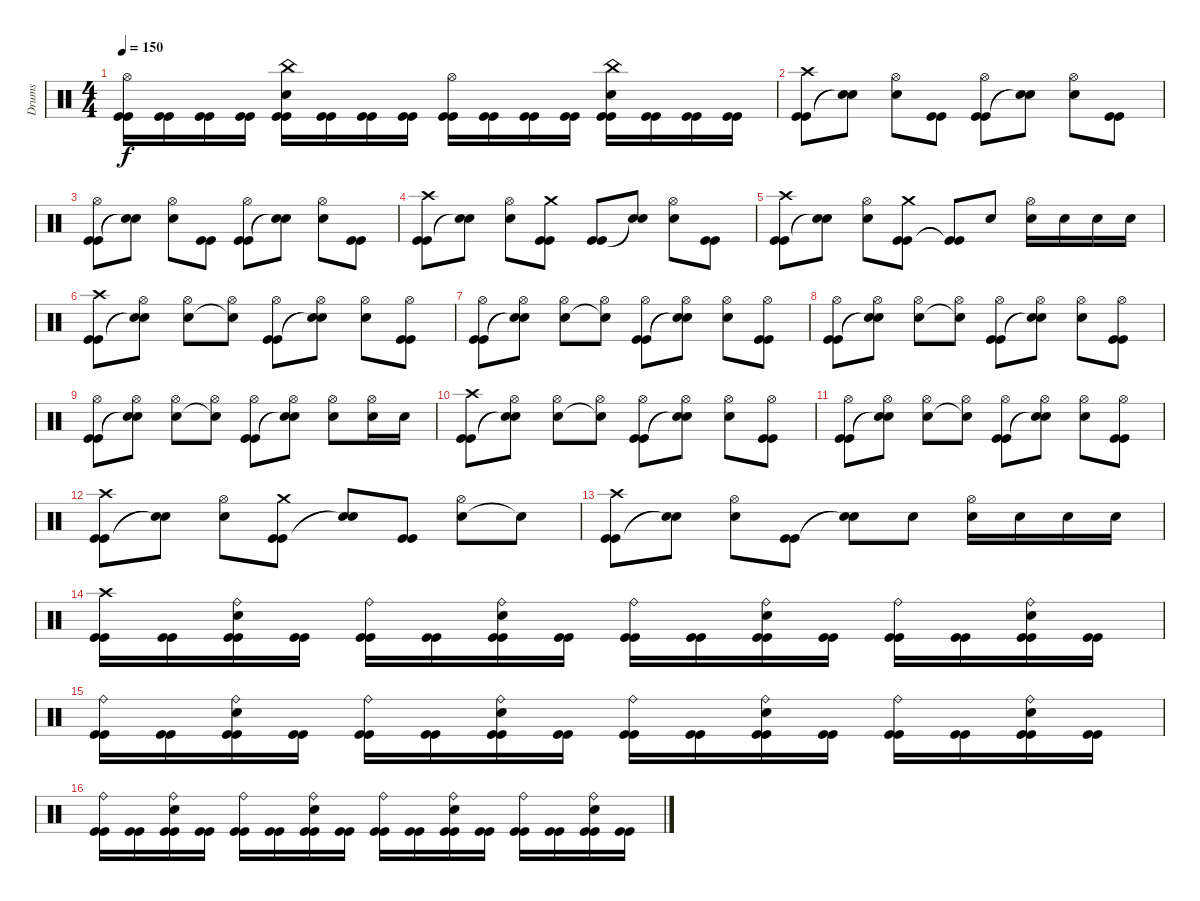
\track ("Drums" "Drums") {instrument percussion}
\staff {score}
\articulation defaults
\ts (4 4)
\tempo 150
\clef neutral
\ks c
("Kick (hit)" "Kick (hit)" "Hi-Hat (open)").16{dy f} ("Kick (hit)" "Kick (hit)").16 ("Kick (hit)" "Kick (hit)").16 ("Kick (hit)" "Kick (hit)").16 ("Kick (hit)" "Kick (hit)" "Snare (hit) 2" "China (hit)").16 ("Kick (hit)" "Kick (hit)").16 ("Kick (hit)" "Kick (hit)").16 ("Kick (hit)" "Kick (hit)").16 ("Kick (hit)" "Kick (hit)" "Hi-Hat (open)").16 ("Kick (hit)" "Kick (hit)").16 ("Kick (hit)" "Kick (hit)").16 ("Kick (hit)" "Kick (hit)").16 ("Kick (hit)" "Kick (hit)" "Snare (hit) 2" "China (hit)").16 ("Kick (hit)" "Kick (hit)").16 ("Kick (hit)" "Kick (hit)").16 ("Kick (hit)" "Kick (hit)").16 |
("Kick (hit)" "Kick (hit)" "Crash high (hit)").8 ("Snare (hit)"{t} "Snare (hit)"{t}).8 ("Snare (hit) 2" "Hi-Hat (open)").8 ("Kick (hit)" "Kick (hit)").8 ("Kick (hit)" "Kick (hit)" "Hi-Hat (open)").8 ("Snare (hit)"{t} "Snare (hit)"{t}).8 ("Snare (hit) 2" "Hi-Hat (open)").8 ("Kick (hit)" "Kick (hit)").8 |
("Kick (hit)" "Kick (hit)" "Hi-Hat (open)").8 ("Snare (hit)"{t} "Snare (hit)"{t}).8 ("Snare (hit) 2" "Hi-Hat (open)").8 ("Kick (hit)" "Kick (hit)").8 ("Kick (hit)" "Kick (hit)" "Hi-Hat (open)").8 ("Snare (hit)"{t} "Snare (hit)"{t}).8 ("Snare (hit) 2" "Hi-Hat (open)").8 ("Kick (hit)" "Kick (hit)").8 |
("Kick (hit)" "Kick (hit)" "Crash high (hit)").8 ("Snare (hit)"{t} "Snare (hit)"{t}).8 ("Snare (hit) 2" "Hi-Hat (open)").8 ("Kick (hit)" "Kick (hit)" "Crash medium (hit)").8 ("Kick (hit)" "Kick (hit)").8 ("Snare (hit)"{t} "Snare (hit)"{t}).8 ("Snare (hit) 2" "Hi-Hat (open)").8 ("Kick (hit)" "Kick (hit)").8 |
("Kick (hit)" "Kick (hit)" "Crash high (hit)").8 ("Snare (hit)"{t} "Snare (hit)"{t}).8 ("Snare (hit) 2" "Hi-Hat (open)").8 ("Kick (hit)" "Kick (hit)" "Crash medium (hit)").8 ("Kick (hit)"{t} "Kick (hit)"{t}).8 "Snare (hit) 2".8 ("Snare (hit) 2" "Hi-Hat (open)").16 "Snare (hit) 2".16 "Snare (hit) 2".16 "Snare (hit) 2".16 |
("Kick (hit)" "Kick (hit)" "Crash high (hit)").8 ("Snare (hit)"{t} "Snare (hit)"{t} "Hi-Hat (open)").8 ("Snare (hit) 2" "Hi-Hat (open)").8 ("Snare (hit)"{t} "Hi-Hat (open)").8 ("Kick (hit)" "Kick (hit)" "Hi-Hat (open)").8 ("Snare (hit)"{t} "Snare (hit)"{t} "Hi-Hat (open)").8 ("Snare (hit) 2" "Hi-Hat (open)").8 ("Kick (hit)" "Kick (hit)" "Hi-Hat (open)").8 |
("Kick (hit)" "Kick (hit)" "Hi-Hat (open)").8 ("Snare (hit)"{t} "Snare (hit)"{t} "Hi-Hat (open)").8 ("Snare (hit) 2" "Hi-Hat (open)").8 ("Snare (hit)"{t} "Hi-Hat (open)").8 ("Kick (hit)" "Kick (hit)" "Hi-Hat (open)").8 ("Snare (hit)"{t} "Snare (hit)"{t} "Hi-Hat (open)").8 ("Snare (hit) 2" "Hi-Hat (open)").8 ("Kick (hit)" "Kick (hit)" "Hi-Hat (open)").8 |
("Kick (hit)" "Kick (hit)" "Hi-Hat (open)").8 ("Snare (hit)"{t} "Snare (hit)"{t} "Hi-Hat (open)").8 ("Snare (hit) 2" "Hi-Hat (open)").8 ("Snare (hit)"{t} "Hi-Hat (open)").8 ("Kick (hit)" "Kick (hit)" "Hi-Hat (open)").8 ("Snare (hit)"{t} "Snare (hit)"{t} "Hi-Hat (open)").8 ("Snare (hit) 2" "Hi-Hat (open)").8 ("Kick (hit)" "Kick (hit)" "Hi-Hat (open)").8 |
("Kick (hit)" "Kick (hit)" "Hi-Hat (open)").8 ("Snare (hit)"{t} "Snare (hit)"{t} "Hi-Hat (open)").8 ("Snare (hit) 2" "Hi-Hat (open)").8 ("Snare (hit)"{t} "Hi-Hat (open)").8 ("Kick (hit)" "Kick (hit)" "Hi-Hat (open)").8 ("Snare (hit)"{t} "Snare (hit)"{t} "Hi-Hat (open)").8 ("Snare (hit) 2" "Hi-Hat (open)").8 ("Snare (hit) 2" "Hi-Hat (open)").16 "Snare (hit) 2".16 |
("Kick (hit)" "Kick (hit)" "Crash high (hit)").8 ("Snare (hit)"{t} "Snare (hit)"{t} "Hi-Hat (open)").8 ("Snare (hit) 2" "Hi-Hat (open)").8 ("Snare (hit)"{t} "Hi-Hat (open)").8 ("Kick (hit)" "Kick (hit)" "Hi-Hat (open)").8 ("Snare (hit)"{t} "Snare (hit)"{t} "Hi-Hat (open)").8 ("Snare (hit) 2" "Hi-Hat (open)").8 ("Kick (hit)" "Kick (hit)" "Hi-Hat (open)").8 |
("Kick (hit)" "Kick (hit)" "Hi-Hat (open)").8 ("Snare (hit)"{t} "Snare (hit)"{t} "Hi-Hat (open)").8 ("Snare (hit) 2" "Hi-Hat (open)").8 ("Snare (hit)"{t} "Hi-Hat (open)").8 ("Kick (hit)" "Kick (hit)" "Hi-Hat (open)").8 ("Snare (hit)"{t} "Snare (hit)"{t} "Hi-Hat (open)").8 ("Snare (hit) 2" "Hi-Hat (open)").8 ("Kick (hit)" "Kick (hit)" "Hi-Hat (open)").8 |
("Kick (hit)" "Kick (hit)" "Crash high (hit)").8 ("Snare (hit)"{t} "Snare (hit)"{t}).8 ("Snare (hit) 2" "Hi-Hat (open)").8 ("Kick (hit)" "Kick (hit)" "Crash medium (hit)").8 ("Snare (hit)"{t} "Snare (hit)"{t}).8 ("Kick (hit)" "Kick (hit)").8 ("Snare (hit) 2" "Hi-Hat (open)").8 "Snare (hit)"{t}.8 |
("Kick (hit)" "Kick (hit)" "Crash high (hit)").8 ("Snare (hit)"{t} "Snare (hit)"{t}).8 ("Snare (hit) 2" "Hi-Hat (open)").8 ("Kick (hit)" "Kick (hit)").8 ("Snare (hit)"{t} "Snare (hit)"{t}).8 "Snare (hit) 2".8 ("Snare (hit) 2" "Hi-Hat (open)").16 "Snare (hit) 2".16 "Snare (hit) 2".16 "Snare (hit) 2".16 |
("Kick (hit)" "Kick (hit)" "Crash high (hit)").16 ("Kick (hit)" "Kick (hit)").16 ("Kick (hit)" "Kick (hit)" "Snare (hit) 2" "Ride (bell)").16 ("Kick (hit)" "Kick (hit)").16 ("Kick (hit)" "Kick (hit)" "Ride (bell)").16 ("Kick (hit)" "Kick (hit)").16 ("Kick (hit)" "Kick (hit)" "Snare (hit) 2" "Ride (bell)").16 ("Kick (hit)" "Kick (hit)").16 ("Kick (hit)" "Kick (hit)" "Ride (bell)").16 ("Kick (hit)" "Kick (hit)").16 ("Kick (hit)" "Kick (hit)" "Snare (hit) 2" "Ride (bell)").16 ("Kick (hit)" "Kick (hit)").16 ("Kick (hit)" "Kick (hit)" "Ride (bell)").16 ("Kick (hit)" "Kick (hit)").16 ("Kick (hit)" "Kick (hit)" "Snare (hit) 2" "Ride (bell)").16 ("Kick (hit)" "Kick (hit)").16 |
("Kick (hit)" "Kick (hit)" "Ride (bell)").16 ("Kick (hit)" "Kick (hit)").16 ("Kick (hit)" "Kick (hit)" "Snare (hit) 2" "Ride (bell)").16 ("Kick (hit)" "Kick (hit)").16 ("Kick (hit)" "Kick (hit)" "Ride (bell)").16 ("Kick (hit)" "Kick (hit)").16 ("Kick (hit)" "Kick (hit)" "Snare (hit) 2" "Ride (bell)").16 ("Kick (hit)" "Kick (hit)").16 ("Kick (hit)" "Kick (hit)" "Ride (bell)").16 ("Kick (hit)" "Kick (hit)").16 ("Kick (hit)" "Kick (hit)" "Snare (hit) 2" "Ride (bell)").16 ("Kick (hit)" "Kick (hit)").16 ("Kick (hit)" "Kick (hit)" "Ride (bell)").16 ("Kick (hit)" "Kick (hit)").16 ("Kick (hit)" "Kick (hit)" "Snare (hit) 2" "Ride (bell)").16 ("Kick (hit)" "Kick (hit)").16 |
("Kick (hit)" "Kick (hit)" "Ride (bell)").16 ("Kick (hit)" "Kick (hit)").16 ("Kick (hit)" "Kick (hit)" "Snare (hit) 2" "Ride (bell)").16 ("Kick (hit)" "Kick (hit)").16 ("Kick (hit)" "Kick (hit)" "Ride (bell)").16 ("Kick (hit)" "Kick (hit)").16 ("Kick (hit)" "Kick (hit)" "Snare (hit) 2" "Ride (bell)").16 ("Kick (hit)" "Kick (hit)").16 ("Kick (hit)" "Kick (hit)" "Ride (bell)").16 ("Kick (hit)" "Kick (hit)").16 ("Kick (hit)" "Kick (hit)" "Snare (hit) 2" "Ride (bell)").16 ("Kick (hit)" "Kick (hit)").16 ("Kick (hit)" "Kick (hit)" "Ride (bell)").16 ("Kick (hit)" "Kick (hit)").16 ("Kick (hit)" "Kick (hit)" "Snare (hit) 2" "Ride (bell)").16 ("Kick (hit)" "Kick (hit)").16
